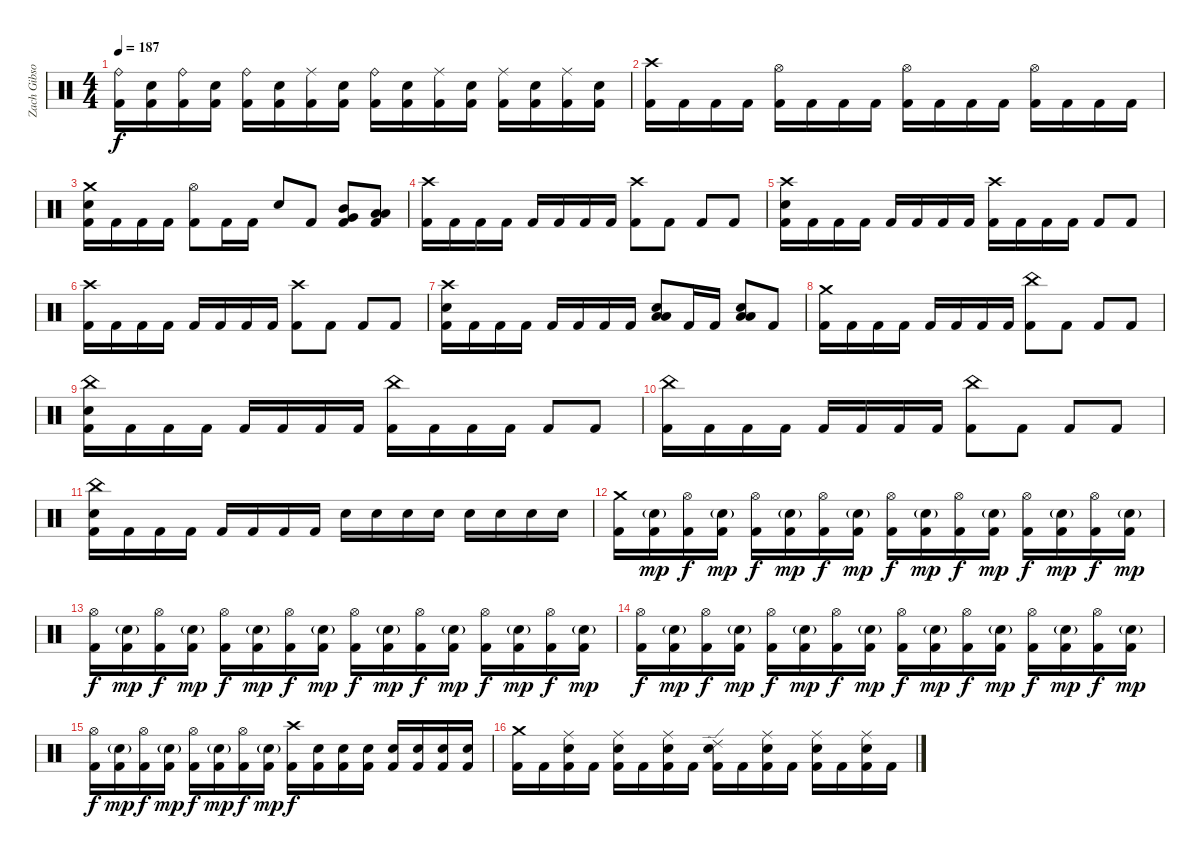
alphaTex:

\track ("Zach Gibson (Ex-Drums)" "Zach Gibso") {instrument percussion}
\staff {score}
\articulation defaults
\ts (4 4)
\tempo 187
\clef neutral
\ks c
("Ride (bell)" "Kick (hit) 2").16{dy f} ("Snare (hit) 2" "Kick (hit) 2").16 ("Ride (bell)" "Kick (hit) 2").16 ("Snare (hit) 2" "Kick (hit) 2").16 ("Ride (bell)" "Kick (hit) 2").16 ("Snare (hit) 2" "Kick (hit) 2").16 ("Ride (middle)" "Kick (hit) 2").16 ("Snare (hit) 2" "Kick (hit) 2").16 ("Ride (bell)" "Kick (hit) 2").16 ("Snare (hit) 2" "Kick (hit) 2").16 ("Ride (middle)" "Kick (hit) 2").16 ("Snare (hit) 2" "Kick (hit) 2").16 ("Ride (middle)" "Kick (hit) 2").16 ("Snare (hit) 2" "Kick (hit) 2").16 ("Ride (middle)" "Kick (hit) 2").16 ("Snare (hit) 2" "Kick (hit) 2").16 |
("Crash high (hit)" "Kick (hit) 2").16 "Kick (hit) 2".16 "Kick (hit) 2".16 "Kick (hit) 2".16 ("Hi-Hat (open)" "Kick (hit) 2").16 "Kick (hit) 2".16 "Kick (hit) 2".16 "Kick (hit) 2".16 ("Hi-Hat (open)" "Kick (hit) 2").16 "Kick (hit) 2".16 "Kick (hit) 2".16 "Kick (hit) 2".16 ("Hi-Hat (open)" "Kick (hit) 2").16 "Kick (hit) 2".16 "Kick (hit) 2".16 "Kick (hit) 2".16 |
("Snare (hit) 2" "Crash medium (hit)" "Kick (hit) 2").16 "Kick (hit) 2".16 "Kick (hit) 2".16 "Kick (hit) 2".16 ("Hi-Hat (open)" "Kick (hit) 2").8 "Kick (hit) 2".16 "Kick (hit) 2".16 "Snare (hit) 2".8 "Kick (hit) 2".8 ("Very Low Tom (hit)" "Mid Tom (hit)" "Kick (hit) 2").8 ("Low Floor Tom (hit)" "Low Tom (hit)" "Kick (hit) 2").8 |
("Crash high (hit)" "Kick (hit) 2").16 "Kick (hit) 2".16 "Kick (hit) 2".16 "Kick (hit) 2".16 "Kick (hit) 2".16 "Kick (hit) 2".16 "Kick (hit) 2".16 "Kick (hit) 2".16 ("Crash high (hit)" "Kick (hit) 2").8 "Kick (hit) 2".8 "Kick (hit) 2".8 "Kick (hit) 2".8 |
("Snare (hit) 2" "Crash high (hit)" "Kick (hit) 2").16 "Kick (hit) 2".16 "Kick (hit) 2".16 "Kick (hit) 2".16 "Kick (hit) 2".16 "Kick (hit) 2".16 "Kick (hit) 2".16 "Kick (hit) 2".16 ("Crash high (hit)" "Kick (hit) 2").16 "Kick (hit) 2".16 "Kick (hit) 2".16 "Kick (hit) 2".16 "Kick (hit) 2".8 "Kick (hit) 2".8 |
("Crash high (hit)" "Kick (hit) 2").16 "Kick (hit) 2".16 "Kick (hit) 2".16 "Kick (hit) 2".16 "Kick (hit) 2".16 "Kick (hit) 2".16 "Kick (hit) 2".16 "Kick (hit) 2".16 ("Crash high (hit)" "Kick (hit) 2").8 "Kick (hit) 2".8 "Kick (hit) 2".8 "Kick (hit) 2".8 |
("Snare (hit) 2" "Crash high (hit)" "Kick (hit) 2").16 "Kick (hit) 2".16 "Kick (hit) 2".16 "Kick (hit) 2".16 "Kick (hit) 2".16 "Kick (hit) 2".16 "Kick (hit) 2".16 "Kick (hit) 2".16 ("Low Tom (hit)" "Low Floor Tom (hit)" "Snare (hit) 2").8 "Kick (hit) 2".16 "Kick (hit) 2".16 ("Low Tom (hit)" "Low Floor Tom (hit)" "Snare (hit) 2").8 "Kick (hit) 2".8 |
("Crash medium (hit)" "Kick (hit) 2").16 "Kick (hit) 2".16 "Kick (hit) 2".16 "Kick (hit) 2".16 "Kick (hit) 2".16 "Kick (hit) 2".16 "Kick (hit) 2".16 "Kick (hit) 2".16 ("China (hit)" "Kick (hit) 2").8 "Kick (hit) 2".8 "Kick (hit) 2".8 "Kick (hit) 2".8 |
("Snare (hit) 2" "China (hit)" "Kick (hit) 2").16 "Kick (hit) 2".16 "Kick (hit) 2".16 "Kick (hit) 2".16 "Kick (hit) 2".16 "Kick (hit) 2".16 "Kick (hit) 2".16 "Kick (hit) 2".16 ("China (hit)" "Kick (hit) 2").16 "Kick (hit) 2".16 "Kick (hit) 2".16 "Kick (hit) 2".16 "Kick (hit) 2".8 "Kick (hit) 2".8 |
("China (hit)" "Kick (hit) 2").16 "Kick (hit) 2".16 "Kick (hit) 2".16 "Kick (hit) 2".16 "Kick (hit) 2".16 "Kick (hit) 2".16 "Kick (hit) 2".16 "Kick (hit) 2".16 ("China (hit)" "Kick (hit) 2").8 "Kick (hit) 2".8 "Kick (hit) 2".8 "Kick (hit) 2".8 |
("Snare (hit) 2" "China (hit)" "Kick (hit) 2").16 "Kick (hit) 2".16 "Kick (hit) 2".16 "Kick (hit) 2".16 "Kick (hit) 2".16 "Kick (hit) 2".16 "Kick (hit) 2".16 "Kick (hit) 2".16 "Snare (hit) 2".16 "Snare (hit) 2".16 "Snare (hit) 2".16 "Snare (hit) 2".16 "Snare (hit) 2".16 "Snare (hit) 2".16 "Snare (hit) 2".16 "Snare (hit) 2".16 |
("Crash medium (hit)" "Kick (hit) 2").16 ("Snare (hit) 2"{g} "Kick (hit) 2").16{dy mp} ("Hi-Hat (open)" "Kick (hit) 2").16{dy f} ("Snare (hit) 2"{g} "Kick (hit) 2").16{dy mp} ("Hi-Hat (open)" "Kick (hit) 2").16{dy f} ("Snare (hit) 2"{g} "Kick (hit) 2").16{dy mp} ("Hi-Hat (open)" "Kick (hit) 2").16{dy f} ("Snare (hit) 2"{g} "Kick (hit) 2").16{dy mp} ("Hi-Hat (open)" "Kick (hit) 2").16{dy f} ("Snare (hit) 2"{g} "Kick (hit) 2").16{dy mp} ("Hi-Hat (open)" "Kick (hit) 2").16{dy f} ("Snare (hit) 2"{g} "Kick (hit) 2").16{dy mp} ("Hi-Hat (open)" "Kick (hit) 2").16{dy f} ("Snare (hit) 2"{g} "Kick (hit) 2").16{dy mp} ("Hi-Hat (open)" "Kick (hit) 2").16{dy f} ("Snare (hit) 2"{g} "Kick (hit) 2").16{dy mp} |
("Hi-Hat (open)" "Kick (hit) 2").16{dy f} ("Snare (hit) 2"{g} "Kick (hit) 2").16{dy mp} ("Hi-Hat (open)" "Kick (hit) 2").16{dy f} ("Snare (hit) 2"{g} "Kick (hit) 2").16{dy mp} ("Hi-Hat (open)" "Kick (hit) 2").16{dy f} ("Snare (hit) 2"{g} "Kick (hit) 2").16{dy mp} ("Hi-Hat (open)" "Kick (hit) 2").16{dy f} ("Snare (hit) 2"{g} "Kick (hit) 2").16{dy mp} ("Hi-Hat (open)" "Kick (hit) 2").16{dy f} ("Snare (hit) 2"{g} "Kick (hit) 2").16{dy mp} ("Hi-Hat (open)" "Kick (hit) 2").16{dy f} ("Snare (hit) 2"{g} "Kick (hit) 2").16{dy mp} ("Hi-Hat (open)" "Kick (hit) 2").16{dy f} ("Snare (hit) 2"{g} "Kick (hit) 2").16{dy mp} ("Hi-Hat (open)" "Kick (hit) 2").16{dy f} ("Snare (hit) 2"{g} "Kick (hit) 2").16{dy mp} |
("Hi-Hat (open)" "Kick (hit) 2").16{dy f} ("Snare (hit) 2"{g} "Kick (hit) 2").16{dy mp} ("Hi-Hat (open)" "Kick (hit) 2").16{dy f} ("Snare (hit) 2"{g} "Kick (hit) 2").16{dy mp} ("Hi-Hat (open)" "Kick (hit) 2").16{dy f} ("Snare (hit) 2"{g} "Kick (hit) 2").16{dy mp} ("Hi-Hat (open)" "Kick (hit) 2").16{dy f} ("Snare (hit) 2"{g} "Kick (hit) 2").16{dy mp} ("Hi-Hat (open)" "Kick (hit) 2").16{dy f} ("Snare (hit) 2"{g} "Kick (hit) 2").16{dy mp} ("Hi-Hat (open)" "Kick (hit) 2").16{dy f} ("Snare (hit) 2"{g} "Kick (hit) 2").16{dy mp} ("Hi-Hat (open)" "Kick (hit) 2").16{dy f} ("Snare (hit) 2"{g} "Kick (hit) 2").16{dy mp} ("Hi-Hat (open)" "Kick (hit) 2").16{dy f} ("Snare (hit) 2"{g} "Kick (hit) 2").16{dy mp} |
("Hi-Hat (open)" "Kick (hit) 2").16{dy f} ("Snare (hit) 2"{g} "Kick (hit) 2").16{dy mp} ("Hi-Hat (open)" "Kick (hit) 2").16{dy f} ("Snare (hit) 2"{g} "Kick (hit) 2").16{dy mp} ("Hi-Hat (open)" "Kick (hit) 2").16{dy f} ("Snare (hit) 2"{g} "Kick (hit) 2").16{dy mp} ("Hi-Hat (open)" "Kick (hit) 2").16{dy f} ("Snare (hit) 2"{g} "Kick (hit) 2").16{dy mp} ("Crash high (hit)" "Kick (hit) 2").16{dy f} ("Snare (hit) 2" "Kick (hit) 2").16 ("Snare (hit) 2" "Kick (hit) 2").16 ("Snare (hit) 2" "Kick (hit) 2").16 ("Snare (hit) 2" "Kick (hit) 2").16 ("Snare (hit) 2" "Kick (hit) 2").16 ("Snare (hit) 2" "Kick (hit) 2").16 ("Snare (hit) 2" "Kick (hit) 2").16 |
("Crash medium (hit)" "Kick (hit) 2").16 "Kick (hit) 2".16 ("Ride (middle)" "Snare (hit) 2" "Kick (hit) 2").16 "Kick (hit) 2".16 ("Ride (middle)" "Snare (hit) 2" "Kick (hit) 2").16 "Kick (hit) 2".16 ("Ride (middle)" "Snare (hit) 2" "Kick (hit) 2").16 "Kick (hit) 2".16 ("Ride (edge) 2" "Snare (hit) 2" "Kick (hit) 2").16 "Kick (hit) 2".16 ("Ride (middle)" "Snare (hit) 2" "Kick (hit) 2").16 "Kick (hit) 2".16 ("Ride (middle)" "Snare (hit) 2" "Kick (hit) 2").16 "Kick (hit) 2".16 ("Ride (middle)" "Snare (hit) 2" "Kick (hit) 2").16 "Kick (hit) 2".16
